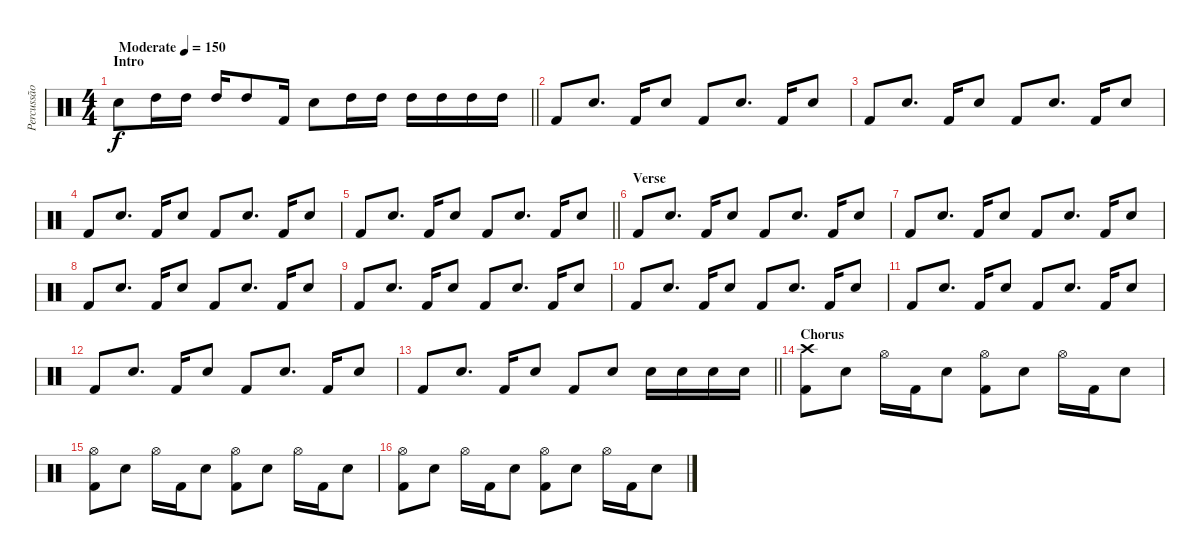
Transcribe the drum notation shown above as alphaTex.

\track ("Percussão" "Percussão") {instrument percussion}
\staff {score}
\articulation defaults
\ts (4 4)
\section ("" "Intro")
\tempo (150 "Moderate")
\clef neutral
\barLineRight lightlight
\ks c "Snare (hit) 2".8{dy f} "High Tom (hit)".16 "High Tom (hit)".16 "High Tom (hit)".16 "High Tom (hit)".8 "Kick (hit) 2".16 "Snare (hit) 2".8 "High Tom (hit)".16 "High Tom (hit)".16 "High Tom (hit)".16 "High Tom (hit)".16 "High Tom (hit)".16 "High Tom (hit)".16
|
"Kick (hit) 2".8 "Snare (hit) 2".8{d} "Kick (hit) 2".16 "Snare (hit) 2".8 "Kick (hit) 2".8 "Snare (hit) 2".8{d} "Kick (hit) 2".16 "Snare (hit) 2".8 |
"Kick (hit) 2".8 "Snare (hit) 2".8{d} "Kick (hit) 2".16 "Snare (hit) 2".8 "Kick (hit) 2".8 "Snare (hit) 2".8{d} "Kick (hit) 2".16 "Snare (hit) 2".8 |
"Kick (hit) 2".8 "Snare (hit) 2".8{d} "Kick (hit) 2".16 "Snare (hit) 2".8 "Kick (hit) 2".8 "Snare (hit) 2".8{d} "Kick (hit) 2".16 "Snare (hit) 2".8 |
\barLineRight lightlight "Kick (hit) 2".8 "Snare (hit) 2".8{d} "Kick (hit) 2".16 "Snare (hit) 2".8 "Kick (hit) 2".8 "Snare (hit) 2".8{d} "Kick (hit) 2".16 "Snare (hit) 2".8
|
\section ("" "Verse")
"Kick (hit) 2".8 "Snare (hit) 2".8{d} "Kick (hit) 2".16 "Snare (hit) 2".8 "Kick (hit) 2".8 "Snare (hit) 2".8{d} "Kick (hit) 2".16 "Snare (hit) 2".8 |
"Kick (hit) 2".8 "Snare (hit) 2".8{d} "Kick (hit) 2".16 "Snare (hit) 2".8 "Kick (hit) 2".8 "Snare (hit) 2".8{d} "Kick (hit) 2".16 "Snare (hit) 2".8 |
"Kick (hit) 2".8 "Snare (hit) 2".8{d} "Kick (hit) 2".16 "Snare (hit) 2".8 "Kick (hit) 2".8 "Snare (hit) 2".8{d} "Kick (hit) 2".16 "Snare (hit) 2".8 |
"Kick (hit) 2".8 "Snare (hit) 2".8{d} "Kick (hit) 2".16 "Snare (hit) 2".8 "Kick (hit) 2".8 "Snare (hit) 2".8{d} "Kick (hit) 2".16 "Snare (hit) 2".8 |
"Kick (hit) 2".8 "Snare (hit) 2".8{d} "Kick (hit) 2".16 "Snare (hit) 2".8 "Kick (hit) 2".8 "Snare (hit) 2".8{d} "Kick (hit) 2".16 "Snare (hit) 2".8 |
"Kick (hit) 2".8 "Snare (hit) 2".8{d} "Kick (hit) 2".16 "Snare (hit) 2".8 "Kick (hit) 2".8 "Snare (hit) 2".8{d} "Kick (hit) 2".16 "Snare (hit) 2".8 |
"Kick (hit) 2".8 "Snare (hit) 2".8{d} "Kick (hit) 2".16 "Snare (hit) 2".8 "Kick (hit) 2".8 "Snare (hit) 2".8{d} "Kick (hit) 2".16 "Snare (hit) 2".8 |
\barLineRight lightlight "Kick (hit) 2".8 "Snare (hit) 2".8{d} "Kick (hit) 2".16 "Snare (hit) 2".8 "Kick (hit) 2".8 "Snare (hit) 2".8 "Snare (hit) 2".16 "Snare (hit) 2".16 "Snare (hit) 2".16 "Snare (hit) 2".16
|
\section ("" "Chorus")
("Crash high (hit)" "Kick (hit) 2").8 "Snare (hit) 2".8 "Hi-Hat (open)".16 "Kick (hit) 2".16 "Snare (hit) 2".8 ("Hi-Hat (open)" "Kick (hit) 2").8 "Snare (hit) 2".8 "Hi-Hat (open)".16 "Kick (hit) 2".16 "Snare (hit) 2".8 |
("Hi-Hat (open)" "Kick (hit) 2").8 "Snare (hit) 2".8 "Hi-Hat (open)".16 "Kick (hit) 2".16 "Snare (hit) 2".8 ("Hi-Hat (open)" "Kick (hit) 2").8 "Snare (hit) 2".8 "Hi-Hat (open)".16 "Kick (hit) 2".16 "Snare (hit) 2".8 |
("Hi-Hat (open)" "Kick (hit) 2").8 "Snare (hit) 2".8 "Hi-Hat (open)".16 "Kick (hit) 2".16 "Snare (hit) 2".8 ("Hi-Hat (open)" "Kick (hit) 2").8 "Snare (hit) 2".8 "Hi-Hat (open)".16 "Kick (hit) 2".16 "Snare (hit) 2".8
